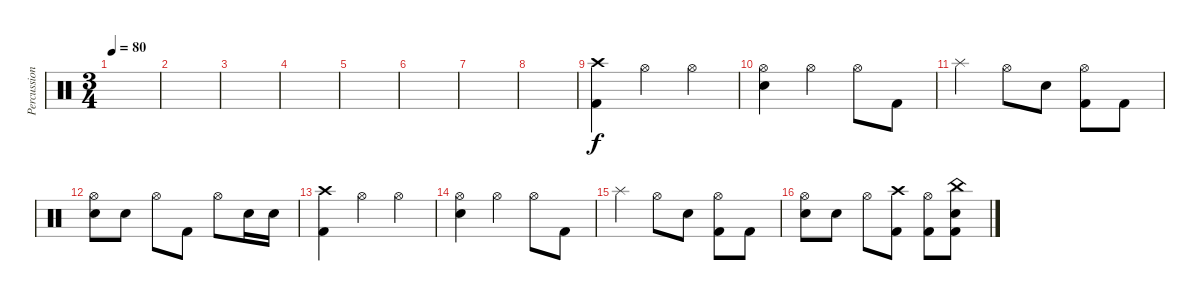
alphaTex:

\track ("Percussion" "Percussion") {instrument percussion}
\staff {score}
\articulation defaults
\ts (3 4)
\tempo 80
\clef neutral
\ks c
|
|
|
|
|
|
|
|
("Crash high (hit)" "Kick (hit) 2").4 "Hi-Hat (open)".4 "Hi-Hat (open)".4 |
("Hi-Hat (open)" "Electric Snare (hit)").4 "Hi-Hat (open)".4 "Hi-Hat (open)".8 "Kick (hit) 2".8 |
"Splash (hit)".4 "Hi-Hat (open)".8 "Electric Snare (hit)".8 ("Hi-Hat (open)" "Kick (hit) 2").8 "Kick (hit) 2".8 |
("Hi-Hat (open)" "Electric Snare (hit)").8 "Electric Snare (hit)".8 "Hi-Hat (open)".8 "Kick (hit) 2".8 "Hi-Hat (open)".8 "Electric Snare (hit)".16 "Electric Snare (hit)".16 |
("Crash high (hit)" "Kick (hit) 2").4 "Hi-Hat (open)".4 "Hi-Hat (open)".4 |
("Hi-Hat (open)" "Electric Snare (hit)").4 "Hi-Hat (open)".4 "Hi-Hat (open)".8 "Kick (hit) 2".8 |
"Splash (hit)".4 "Hi-Hat (open)".8 "Electric Snare (hit)".8 ("Hi-Hat (open)" "Kick (hit) 2").8 "Kick (hit) 2".8 |
("Hi-Hat (open)" "Electric Snare (hit)").8 "Electric Snare (hit)".8 "Hi-Hat (open)".8 ("Crash high (hit)" "Kick (hit) 2").8 ("Hi-Hat (open)" "Kick (hit) 2").8 ("China (hit)" "Electric Snare (hit)" "Kick (hit) 2").8
